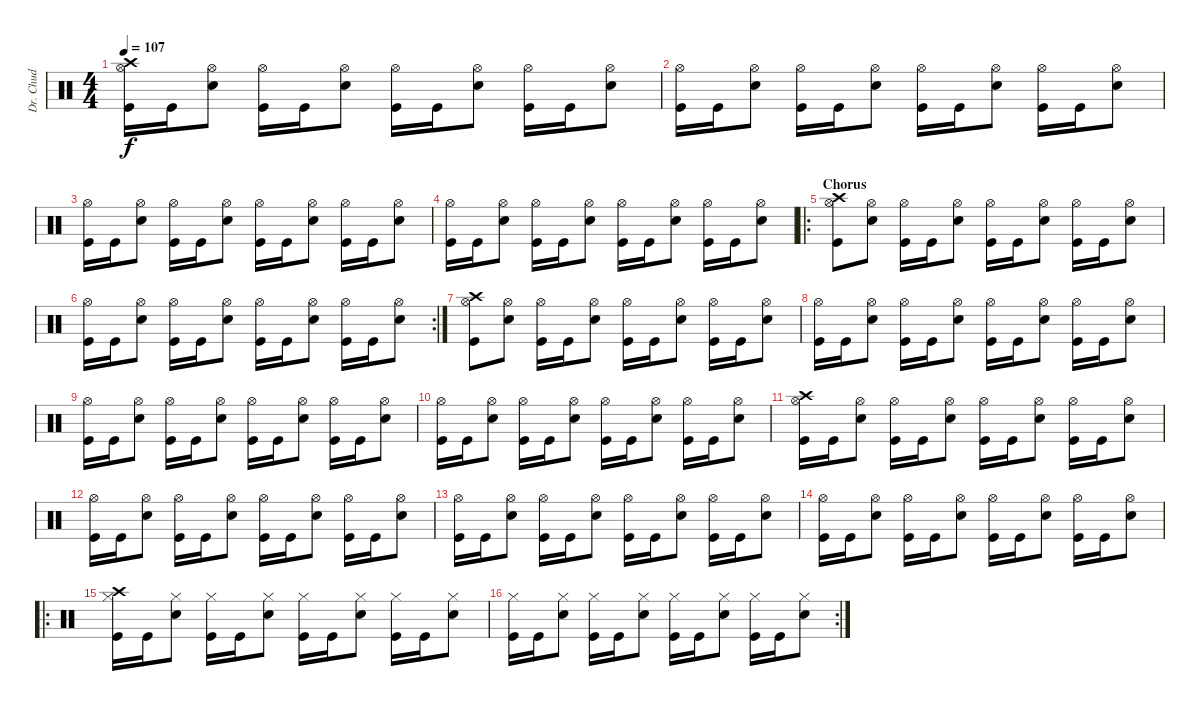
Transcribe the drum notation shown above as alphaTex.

\track ("Dr. Chud" "Dr. Chud") {instrument percussion}
\staff {score}
\articulation defaults
\ts (4 4)
\tempo 107
\clef neutral
\ks c
("Crash high (hit)" "Hi-Hat (open)" "Kick (hit)").16{dy f} "Kick (hit)".16 ("Hi-Hat (open)" "Snare (hit) 2").8 ("Hi-Hat (open)" "Kick (hit)").16 "Kick (hit)".16 ("Hi-Hat (open)" "Snare (hit) 2").8 ("Hi-Hat (open)" "Kick (hit)").16 "Kick (hit)".16 ("Hi-Hat (open)" "Snare (hit) 2").8 ("Hi-Hat (open)" "Kick (hit)").16 "Kick (hit)".16 ("Hi-Hat (open)" "Snare (hit) 2").8 |
("Hi-Hat (open)" "Kick (hit)").16 "Kick (hit)".16 ("Hi-Hat (open)" "Snare (hit) 2").8 ("Hi-Hat (open)" "Kick (hit)").16 "Kick (hit)".16 ("Hi-Hat (open)" "Snare (hit) 2").8 ("Hi-Hat (open)" "Kick (hit)").16 "Kick (hit)".16 ("Hi-Hat (open)" "Snare (hit) 2").8 ("Hi-Hat (open)" "Kick (hit)").16 "Kick (hit)".16 ("Hi-Hat (open)" "Snare (hit) 2").8 |
("Hi-Hat (open)" "Kick (hit)").16 "Kick (hit)".16 ("Hi-Hat (open)" "Snare (hit) 2").8 ("Hi-Hat (open)" "Kick (hit)").16 "Kick (hit)".16 ("Hi-Hat (open)" "Snare (hit) 2").8 ("Hi-Hat (open)" "Kick (hit)").16 "Kick (hit)".16 ("Hi-Hat (open)" "Snare (hit) 2").8 ("Hi-Hat (open)" "Kick (hit)").16 "Kick (hit)".16 ("Hi-Hat (open)" "Snare (hit) 2").8 |
("Hi-Hat (open)" "Kick (hit)").16 "Kick (hit)".16 ("Hi-Hat (open)" "Snare (hit) 2").8 ("Hi-Hat (open)" "Kick (hit)").16 "Kick (hit)".16 ("Hi-Hat (open)" "Snare (hit) 2").8 ("Hi-Hat (open)" "Kick (hit)").16 "Kick (hit)".16 ("Hi-Hat (open)" "Snare (hit) 2").8 ("Hi-Hat (open)" "Kick (hit)").16 "Kick (hit)".16 ("Hi-Hat (open)" "Snare (hit) 2").8 |
\ro
\section ("" "Chorus")
("Crash high (hit)" "Hi-Hat (open)" "Kick (hit)").8 ("Hi-Hat (open)" "Snare (hit) 2").8 ("Hi-Hat (open)" "Kick (hit)").16 "Kick (hit)".16 ("Hi-Hat (open)" "Snare (hit) 2").8 ("Hi-Hat (open)" "Kick (hit)").16 "Kick (hit)".16 ("Hi-Hat (open)" "Snare (hit) 2").8 ("Hi-Hat (open)" "Kick (hit)").16 "Kick (hit)".16 ("Hi-Hat (open)" "Snare (hit) 2").8 |
\rc 2
("Hi-Hat (open)" "Kick (hit)").16 "Kick (hit)".16 ("Hi-Hat (open)" "Snare (hit) 2").8 ("Hi-Hat (open)" "Kick (hit)").16 "Kick (hit)".16 ("Hi-Hat (open)" "Snare (hit) 2").8 ("Hi-Hat (open)" "Kick (hit)").16 "Kick (hit)".16 ("Hi-Hat (open)" "Snare (hit) 2").8 ("Hi-Hat (open)" "Kick (hit)").16 "Kick (hit)".16 ("Hi-Hat (open)" "Snare (hit) 2").8 |
("Crash high (hit)" "Hi-Hat (open)" "Kick (hit)").8 ("Hi-Hat (open)" "Snare (hit) 2").8 ("Hi-Hat (open)" "Kick (hit)").16 "Kick (hit)".16 ("Hi-Hat (open)" "Snare (hit) 2").8 ("Hi-Hat (open)" "Kick (hit)").16 "Kick (hit)".16 ("Hi-Hat (open)" "Snare (hit) 2").8 ("Hi-Hat (open)" "Kick (hit)").16 "Kick (hit)".16 ("Hi-Hat (open)" "Snare (hit) 2").8 |
("Hi-Hat (open)" "Kick (hit)").16 "Kick (hit)".16 ("Hi-Hat (open)" "Snare (hit) 2").8 ("Hi-Hat (open)" "Kick (hit)").16 "Kick (hit)".16 ("Hi-Hat (open)" "Snare (hit) 2").8 ("Hi-Hat (open)" "Kick (hit)").16 "Kick (hit)".16 ("Hi-Hat (open)" "Snare (hit) 2").8 ("Hi-Hat (open)" "Kick (hit)").16 "Kick (hit)".16 ("Hi-Hat (open)" "Snare (hit) 2").8 |
("Hi-Hat (open)" "Kick (hit)").16 "Kick (hit)".16 ("Hi-Hat (open)" "Snare (hit) 2").8 ("Hi-Hat (open)" "Kick (hit)").16 "Kick (hit)".16 ("Hi-Hat (open)" "Snare (hit) 2").8 ("Hi-Hat (open)" "Kick (hit)").16 "Kick (hit)".16 ("Hi-Hat (open)" "Snare (hit) 2").8 ("Hi-Hat (open)" "Kick (hit)").16 "Kick (hit)".16 ("Hi-Hat (open)" "Snare (hit) 2").8 |
("Hi-Hat (open)" "Kick (hit)").16 "Kick (hit)".16 ("Hi-Hat (open)" "Snare (hit) 2").8 ("Hi-Hat (open)" "Kick (hit)").16 "Kick (hit)".16 ("Hi-Hat (open)" "Snare (hit) 2").8 ("Hi-Hat (open)" "Kick (hit)").16 "Kick (hit)".16 ("Hi-Hat (open)" "Snare (hit) 2").8 ("Hi-Hat (open)" "Kick (hit)").16 "Kick (hit)".16 ("Hi-Hat (open)" "Snare (hit) 2").8 |
("Crash high (hit)" "Hi-Hat (open)" "Kick (hit)").16 "Kick (hit)".16 ("Hi-Hat (open)" "Snare (hit) 2").8 ("Hi-Hat (open)" "Kick (hit)").16 "Kick (hit)".16 ("Hi-Hat (open)" "Snare (hit) 2").8 ("Hi-Hat (open)" "Kick (hit)").16 "Kick (hit)".16 ("Hi-Hat (open)" "Snare (hit) 2").8 ("Hi-Hat (open)" "Kick (hit)").16 "Kick (hit)".16 ("Hi-Hat (open)" "Snare (hit) 2").8 |
("Hi-Hat (open)" "Kick (hit)").16 "Kick (hit)".16 ("Hi-Hat (open)" "Snare (hit) 2").8 ("Hi-Hat (open)" "Kick (hit)").16 "Kick (hit)".16 ("Hi-Hat (open)" "Snare (hit) 2").8 ("Hi-Hat (open)" "Kick (hit)").16 "Kick (hit)".16 ("Hi-Hat (open)" "Snare (hit) 2").8 ("Hi-Hat (open)" "Kick (hit)").16 "Kick (hit)".16 ("Hi-Hat (open)" "Snare (hit) 2").8 |
("Hi-Hat (open)" "Kick (hit)").16 "Kick (hit)".16 ("Hi-Hat (open)" "Snare (hit) 2").8 ("Hi-Hat (open)" "Kick (hit)").16 "Kick (hit)".16 ("Hi-Hat (open)" "Snare (hit) 2").8 ("Hi-Hat (open)" "Kick (hit)").16 "Kick (hit)".16 ("Hi-Hat (open)" "Snare (hit) 2").8 ("Hi-Hat (open)" "Kick (hit)").16 "Kick (hit)".16 ("Hi-Hat (open)" "Snare (hit) 2").8 |
("Hi-Hat (open)" "Kick (hit)").16 "Kick (hit)".16 ("Hi-Hat (open)" "Snare (hit) 2").8 ("Hi-Hat (open)" "Kick (hit)").16 "Kick (hit)".16 ("Hi-Hat (open)" "Snare (hit) 2").8 ("Hi-Hat (open)" "Kick (hit)").16 "Kick (hit)".16 ("Hi-Hat (open)" "Snare (hit) 2").8 ("Hi-Hat (open)" "Kick (hit)").16 "Kick (hit)".16 ("Hi-Hat (open)" "Snare (hit) 2").8 |
\ro
("Crash high (hit)" "Hi-Hat (closed)" "Kick (hit)").16 "Kick (hit)".16 ("Hi-Hat (closed)" "Snare (hit) 2").8 ("Hi-Hat (closed)" "Kick (hit)").16 "Kick (hit)".16 ("Hi-Hat (closed)" "Snare (hit) 2").8 ("Hi-Hat (closed)" "Kick (hit)").16 "Kick (hit)".16 ("Hi-Hat (closed)" "Snare (hit) 2").8 ("Hi-Hat (closed)" "Kick (hit)").16 "Kick (hit)".16 ("Hi-Hat (closed)" "Snare (hit) 2").8 |
\rc 2
("Hi-Hat (closed)" "Kick (hit)").16 "Kick (hit)".16 ("Hi-Hat (closed)" "Snare (hit) 2").8 ("Hi-Hat (closed)" "Kick (hit)").16 "Kick (hit)".16 ("Hi-Hat (closed)" "Snare (hit) 2").8 ("Hi-Hat (closed)" "Kick (hit)").16 "Kick (hit)".16 ("Hi-Hat (closed)" "Snare (hit) 2").8 ("Hi-Hat (closed)" "Kick (hit)").16 "Kick (hit)".16 ("Hi-Hat (closed)" "Snare (hit) 2").8
